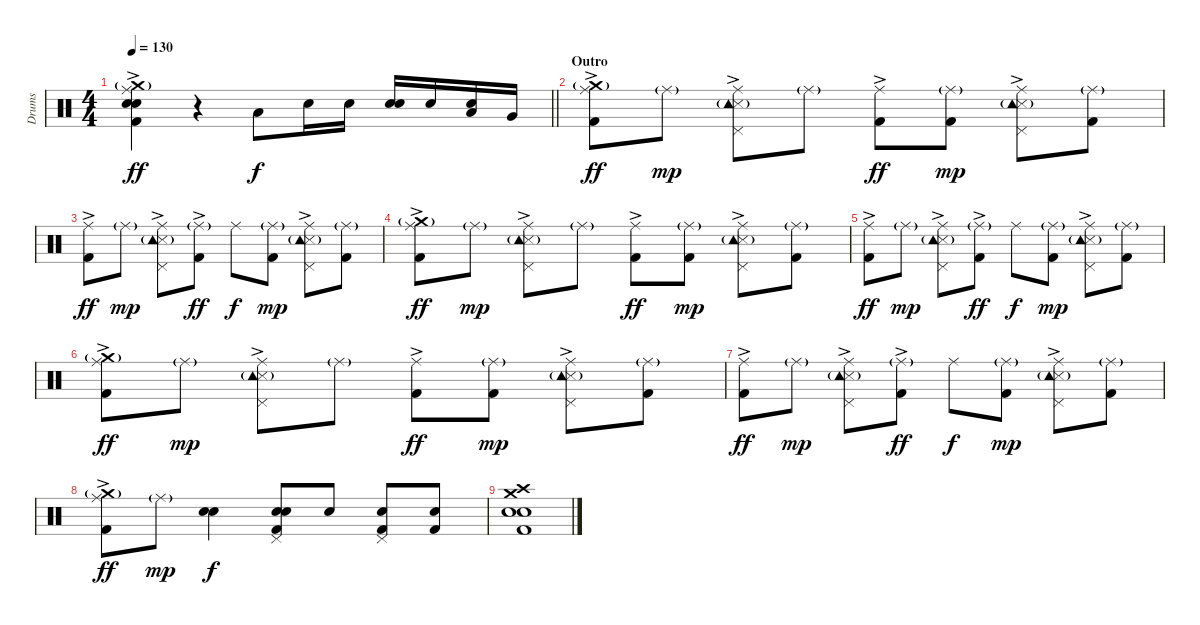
\track ("Drums" "Drums") {instrument percussion}
\staff {score}
\articulation defaults
\ts (4 4)
\tempo 130
\clef neutral
\barLineRight lightlight
\ks c
("Ride (middle)" "Crash medium (hit)"{g} "Electric Snare (hit)" "Snare (hit) 2" "Kick (hit) 2"{ac}).4{dy ff} r.4 "Low Tom (hit)".8{dy f} "Electric Snare (hit)".16 "Electric Snare (hit)".16 ("Electric Snare (hit)" "Snare (hit) 2").16 "Electric Snare (hit)".16 ("Low Tom (hit)" "Snare (hit) 2").16 "Very Low Tom (hit)".16 |
\section ("" "Outro")
("Ride (middle)" "Crash medium (hit)"{g} "Kick (hit) 2"{ac}).8{dy ff} "Ride (middle)"{g}.8{dy mp} ("Ride (middle)" "Pedal Hi-Hat (hit)" "Snare (side stick) 3"{ac} "Tambourine (hit)"{g}).8 "Ride (middle)"{g}.8 ("Ride (middle)" "Kick (hit) 2"{ac}).8{dy ff} ("Ride (middle)"{g} "Kick (hit) 2").8{dy mp} ("Ride (middle)" "Pedal Hi-Hat (hit)" "Snare (side stick) 3"{ac} "Tambourine (hit)"{g}).8 ("Ride (middle)"{g} "Kick (hit) 2").8 |
("Ride (middle)" "Kick (hit) 2"{ac}).8{dy ff} "Ride (middle)"{g}.8{dy mp} ("Ride (middle)" "Pedal Hi-Hat (hit)" "Snare (side stick) 3"{ac} "Tambourine (hit)"{g}).8 ("Ride (middle)"{g} "Kick (hit) 2"{ac}).8{dy ff} "Ride (middle)".8{dy f} ("Ride (middle)"{g} "Kick (hit) 2").8{dy mp} ("Ride (middle)" "Pedal Hi-Hat (hit)" "Snare (side stick) 3"{ac} "Tambourine (hit)"{g}).8 ("Ride (middle)"{g} "Kick (hit) 2").8 |
("Ride (middle)" "Crash medium (hit)"{g} "Kick (hit) 2"{ac}).8{dy ff} "Ride (middle)"{g}.8{dy mp} ("Ride (middle)" "Pedal Hi-Hat (hit)" "Snare (side stick) 3"{ac} "Tambourine (hit)"{g}).8 "Ride (middle)"{g}.8 ("Ride (middle)" "Kick (hit) 2"{ac}).8{dy ff} ("Ride (middle)"{g} "Kick (hit) 2").8{dy mp} ("Ride (middle)" "Pedal Hi-Hat (hit)" "Snare (side stick) 3"{ac} "Tambourine (hit)"{g}).8 ("Ride (middle)"{g} "Kick (hit) 2").8 |
("Ride (middle)" "Kick (hit) 2"{ac}).8{dy ff} "Ride (middle)"{g}.8{dy mp} ("Ride (middle)" "Pedal Hi-Hat (hit)" "Snare (side stick) 3"{ac} "Tambourine (hit)"{g}).8 ("Ride (middle)"{g} "Kick (hit) 2"{ac}).8{dy ff} "Ride (middle)".8{dy f} ("Ride (middle)"{g} "Kick (hit) 2").8{dy mp} ("Ride (middle)" "Pedal Hi-Hat (hit)" "Snare (side stick) 3"{ac} "Tambourine (hit)"{g}).8 ("Ride (middle)"{g} "Kick (hit) 2").8 |
("Ride (middle)" "Crash medium (hit)"{g} "Kick (hit) 2"{ac}).8{dy ff} "Ride (middle)"{g}.8{dy mp} ("Ride (middle)" "Pedal Hi-Hat (hit)" "Snare (side stick) 3"{ac} "Tambourine (hit)"{g}).8 "Ride (middle)"{g}.8 ("Ride (middle)" "Kick (hit) 2"{ac}).8{dy ff} ("Ride (middle)"{g} "Kick (hit) 2").8{dy mp} ("Ride (middle)" "Pedal Hi-Hat (hit)" "Snare (side stick) 3"{ac} "Tambourine (hit)"{g}).8 ("Ride (middle)"{g} "Kick (hit) 2").8 |
("Ride (middle)" "Kick (hit) 2"{ac}).8{dy ff} "Ride (middle)"{g}.8{dy mp} ("Ride (middle)" "Pedal Hi-Hat (hit)" "Snare (side stick) 3"{ac} "Tambourine (hit)"{g}).8 ("Ride (middle)"{g} "Kick (hit) 2"{ac}).8{dy ff} "Ride (middle)".8{dy f} ("Ride (middle)"{g} "Kick (hit) 2").8{dy mp} ("Ride (middle)" "Pedal Hi-Hat (hit)" "Snare (side stick) 3"{ac} "Tambourine (hit)"{g}).8 ("Ride (middle)"{g} "Kick (hit) 2").8 |
("Ride (middle)" "Crash medium (hit)"{g} "Kick (hit) 2"{ac}).8{dy ff} "Ride (middle)"{g}.8{dy mp} ("Electric Snare (hit)" "Snare (hit) 2").4{dy f} ("Pedal Hi-Hat (hit)" "Electric Snare (hit)" "Snare (hit) 2" "Kick (hit) 2").8 "Electric Snare (hit)".8 ("Pedal Hi-Hat (hit)" "Electric Snare (hit)" "Kick (hit) 2").8 ("Electric Snare (hit)" "Kick (hit) 2").8 |
("Crash medium (hit)" "Crash high (hit)" "Electric Snare (hit)" "Snare (hit) 2" "Kick (hit) 2").1
